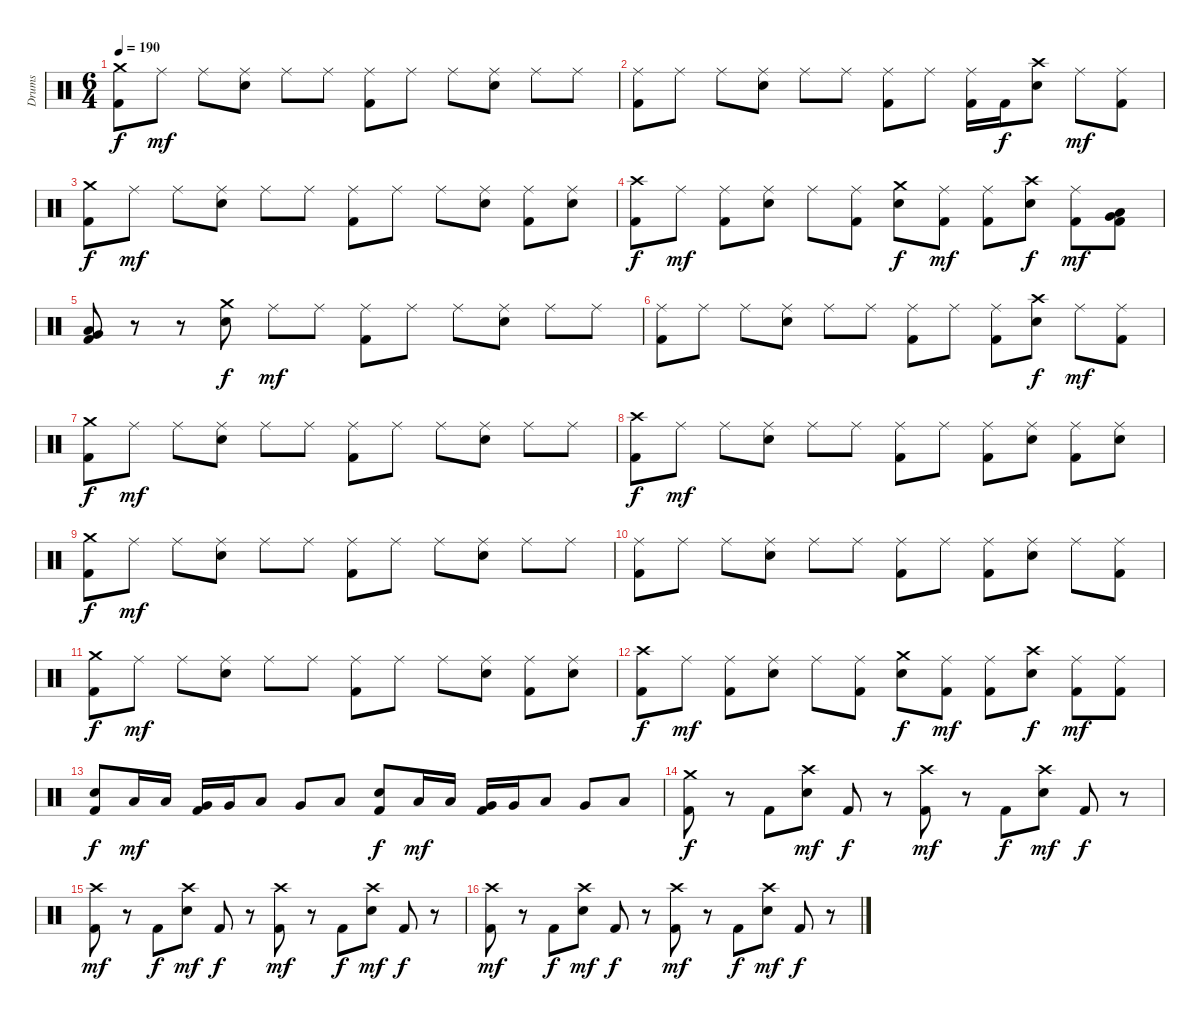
\track ("Drums" "Drums") {instrument percussion}
\staff {score}
\articulation defaults
\ts (6 4)
\tempo 190
\clef neutral
\ks c
("Crash medium (hit)" "Kick (hit) 2").8{dy f} "Ride (middle)".8{dy mf} "Ride (middle)".8 ("Ride (middle)" "Snare (hit) 2").8 "Ride (middle)".8 "Ride (middle)".8 ("Ride (middle)" "Kick (hit) 2").8 "Ride (middle)".8 "Ride (middle)".8 ("Ride (middle)" "Snare (hit) 2").8 "Ride (middle)".8 "Ride (middle)".8 |
("Ride (middle)" "Kick (hit) 2").8 "Ride (middle)".8 "Ride (middle)".8 ("Ride (middle)" "Snare (hit) 2").8 "Ride (middle)".8 "Ride (middle)".8 ("Ride (middle)" "Kick (hit) 2").8 "Ride (middle)".8 ("Ride (middle)" "Kick (hit) 2").16 "Kick (hit) 2".16{dy f} ("Crash high (hit)" "Snare (hit) 2").8 "Ride (middle)".8{dy mf} ("Ride (middle)" "Kick (hit) 2").8 |
("Crash medium (hit)" "Kick (hit) 2").8{dy f} "Ride (middle)".8{dy mf} "Ride (middle)".8 ("Ride (middle)" "Snare (hit) 2").8 "Ride (middle)".8 "Ride (middle)".8 ("Ride (middle)" "Kick (hit) 2").8 "Ride (middle)".8 "Ride (middle)".8 ("Ride (middle)" "Snare (hit) 2").8 ("Ride (middle)" "Kick (hit) 2").8 ("Ride (middle)" "Snare (hit) 2").8 |
("Crash high (hit)" "Kick (hit) 2").8{dy f} "Ride (middle)".8{dy mf} ("Ride (middle)" "Kick (hit) 2").8 ("Ride (middle)" "Snare (hit) 2").8 "Ride (middle)".8 ("Ride (middle)" "Kick (hit) 2").8 ("Crash medium (hit)" "Snare (hit) 2").8{dy f} ("Ride (middle)" "Kick (hit) 2").8{dy mf} ("Ride (middle)" "Kick (hit) 2").8 ("Crash high (hit)" "Snare (hit) 2").8{dy f} ("Ride (middle)" "Kick (hit) 2").8{dy mf} ("Very Low Tom (hit)" "Low Floor Tom (hit)" "Kick (hit) 2").8 |
("Very Low Tom (hit)" "Low Floor Tom (hit)" "Kick (hit) 2").8 r.8 r.8 ("Crash medium (hit)" "Snare (hit) 2").8{dy f} "Ride (middle)".8{dy mf} "Ride (middle)".8 ("Ride (middle)" "Kick (hit) 2").8 "Ride (middle)".8 "Ride (middle)".8 ("Ride (middle)" "Snare (hit) 2").8 "Ride (middle)".8 "Ride (middle)".8 |
("Ride (middle)" "Kick (hit) 2").8 "Ride (middle)".8 "Ride (middle)".8 ("Ride (middle)" "Snare (hit) 2").8 "Ride (middle)".8 "Ride (middle)".8 ("Ride (middle)" "Kick (hit) 2").8 "Ride (middle)".8 ("Ride (middle)" "Kick (hit) 2").8 ("Crash high (hit)" "Snare (hit) 2").8{dy f} "Ride (middle)".8{dy mf} ("Ride (middle)" "Kick (hit) 2").8 |
("Crash medium (hit)" "Kick (hit) 2").8{dy f} "Ride (middle)".8{dy mf} "Ride (middle)".8 ("Ride (middle)" "Snare (hit) 2").8 "Ride (middle)".8 "Ride (middle)".8 ("Ride (middle)" "Kick (hit) 2").8 "Ride (middle)".8 "Ride (middle)".8 ("Ride (middle)" "Snare (hit) 2").8 "Ride (middle)".8 "Ride (middle)".8 |
("Crash high (hit)" "Kick (hit) 2").8{dy f} "Ride (middle)".8{dy mf} "Ride (middle)".8 ("Ride (middle)" "Snare (hit) 2").8 "Ride (middle)".8 "Ride (middle)".8 ("Ride (middle)" "Kick (hit) 2").8 "Ride (middle)".8 ("Ride (middle)" "Kick (hit) 2").8 ("Ride (middle)" "Snare (hit) 2").8 ("Ride (middle)" "Kick (hit) 2").8 ("Ride (middle)" "Snare (hit) 2").8 |
("Crash medium (hit)" "Kick (hit) 2").8{dy f} "Ride (middle)".8{dy mf} "Ride (middle)".8 ("Ride (middle)" "Snare (hit) 2").8 "Ride (middle)".8 "Ride (middle)".8 ("Ride (middle)" "Kick (hit) 2").8 "Ride (middle)".8 "Ride (middle)".8 ("Ride (middle)" "Snare (hit) 2").8 "Ride (middle)".8 "Ride (middle)".8 |
("Ride (middle)" "Kick (hit) 2").8 "Ride (middle)".8 "Ride (middle)".8 ("Ride (middle)" "Snare (hit) 2").8 "Ride (middle)".8 "Ride (middle)".8 ("Ride (middle)" "Kick (hit) 2").8 "Ride (middle)".8 ("Ride (middle)" "Kick (hit) 2").8 ("Ride (middle)" "Snare (hit) 2").8 "Ride (middle)".8 ("Ride (middle)" "Kick (hit) 2").8 |
("Crash medium (hit)" "Kick (hit) 2").8{dy f} "Ride (middle)".8{dy mf} "Ride (middle)".8 ("Ride (middle)" "Snare (hit) 2").8 "Ride (middle)".8 "Ride (middle)".8 ("Ride (middle)" "Kick (hit) 2").8 "Ride (middle)".8 "Ride (middle)".8 ("Ride (middle)" "Snare (hit) 2").8 ("Ride (middle)" "Kick (hit) 2").8 ("Ride (middle)" "Snare (hit) 2").8 |
("Crash high (hit)" "Kick (hit) 2").8{dy f} "Ride (middle)".8{dy mf} ("Ride (middle)" "Kick (hit) 2").8 ("Ride (middle)" "Snare (hit) 2").8 "Ride (middle)".8 ("Ride (middle)" "Kick (hit) 2").8 ("Crash medium (hit)" "Snare (hit) 2").8{dy f} ("Ride (middle)" "Kick (hit) 2").8{dy mf} ("Ride (middle)" "Kick (hit) 2").8 ("Crash high (hit)" "Snare (hit) 2").8{dy f} ("Ride (middle)" "Kick (hit) 2").8{dy mf} ("Ride (middle)" "Kick (hit) 2").8 |
("Snare (hit) 2" "Kick (hit) 2").8{dy f} "Low Tom (hit)".16{dy mf} "Low Tom (hit)".16 ("Very Low Tom (hit)" "Kick (hit) 2").16 "Very Low Tom (hit)".16 "Low Tom (hit)".8 "Very Low Tom (hit)".8 "Low Floor Tom (hit)".8 ("Snare (hit) 2" "Kick (hit) 2").8{dy f} "Low Tom (hit)".16{dy mf} "Low Tom (hit)".16 ("Very Low Tom (hit)" "Kick (hit) 2").16 "Very Low Tom (hit)".16 "Low Tom (hit)".8 "Very Low Tom (hit)".8 "Low Floor Tom (hit)".8 |
("Crash medium (hit)" "Kick (hit) 2").8{dy f} r.8 "Kick (hit) 2".8 ("Crash high (hit)" "Snare (hit) 2").8{dy mf} "Kick (hit) 2".8{dy f} r.8 ("Crash high (hit)" "Kick (hit) 2").8{dy mf} r.8 "Kick (hit) 2".8{dy f} ("Crash high (hit)" "Snare (hit) 2").8{dy mf} "Kick (hit) 2".8{dy f} r.8 |
("Crash high (hit)" "Kick (hit) 2").8{dy mf} r.8 "Kick (hit) 2".8{dy f} ("Crash high (hit)" "Snare (hit) 2").8{dy mf} "Kick (hit) 2".8{dy f} r.8 ("Crash high (hit)" "Kick (hit) 2").8{dy mf} r.8 "Kick (hit) 2".8{dy f} ("Crash high (hit)" "Snare (hit) 2").8{dy mf} "Kick (hit) 2".8{dy f} r.8 |
("Crash high (hit)" "Kick (hit) 2").8{dy mf} r.8 "Kick (hit) 2".8{dy f} ("Crash high (hit)" "Snare (hit) 2").8{dy mf} "Kick (hit) 2".8{dy f} r.8 ("Crash high (hit)" "Kick (hit) 2").8{dy mf} r.8 "Kick (hit) 2".8{dy f} ("Crash high (hit)" "Snare (hit) 2").8{dy mf} "Kick (hit) 2".8{dy f} r.8
